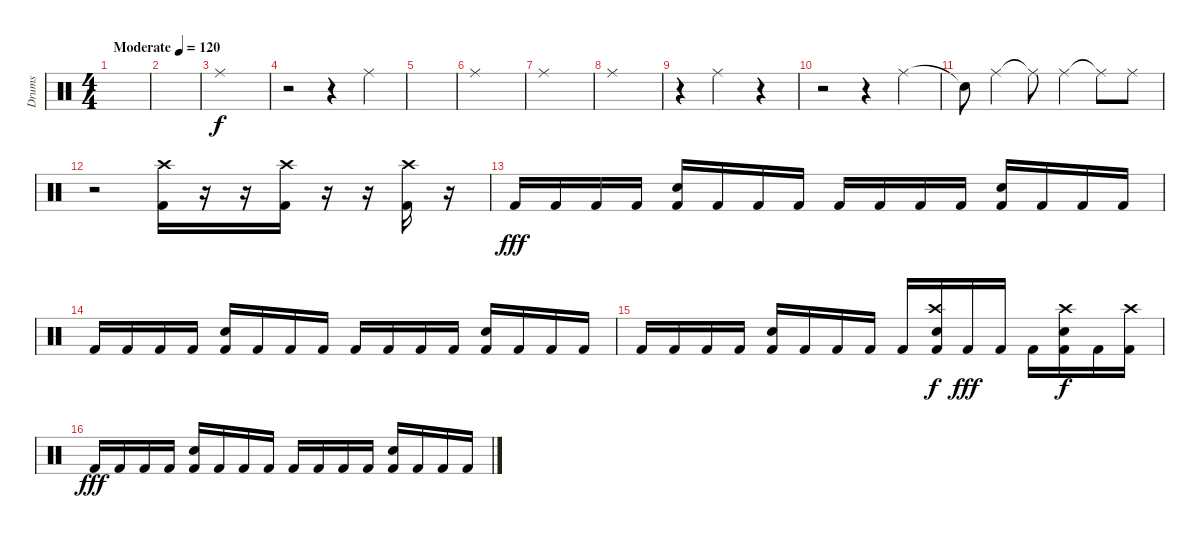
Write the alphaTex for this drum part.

\track ("Drums" "Drums") {instrument percussion}
\staff {score}
\articulation defaults
\ts (4 4)
\tempo (120 "Moderate")
\clef neutral
\ks c
|
|
"Ride (middle)".1 |
r.2 r.4 "Ride (middle)".4 |
|
"Ride (middle)".1 |
"Ride (middle)".1 |
"Ride (middle)".1 |
r.4 "Ride (middle)".2 r.4 |
r.2 r.4 "Ride (middle)".4 |
"Snare (hit)"{t}.8 "Ride (middle)".4 "Ride (middle)"{t}.8 "Ride (middle)".4 "Ride (middle)"{t}.8 "Ride (middle)".8 |
r.2 ("Crash high (hit)" "Kick (hit) 2").16 r.16 r.16 ("Crash high (hit)" "Kick (hit) 2").16 r.16 r.16 ("Crash high (hit)" "Kick (hit) 2").16 r.16 |
"Kick (hit) 2".16{dy fff} "Kick (hit) 2".16 "Kick (hit) 2".16 "Kick (hit) 2".16 ("Snare (hit) 2" "Kick (hit) 2").16 "Kick (hit) 2".16 "Kick (hit) 2".16 "Kick (hit) 2".16 "Kick (hit) 2".16 "Kick (hit) 2".16 "Kick (hit) 2".16 "Kick (hit) 2".16 ("Snare (hit) 2" "Kick (hit) 2").16 "Kick (hit) 2".16 "Kick (hit) 2".16 "Kick (hit) 2".16 |
"Kick (hit) 2".16 "Kick (hit) 2".16 "Kick (hit) 2".16 "Kick (hit) 2".16 ("Snare (hit) 2" "Kick (hit) 2").16 "Kick (hit) 2".16 "Kick (hit) 2".16 "Kick (hit) 2".16 "Kick (hit) 2".16 "Kick (hit) 2".16 "Kick (hit) 2".16 "Kick (hit) 2".16 ("Snare (hit) 2" "Kick (hit) 2").16 "Kick (hit) 2".16 "Kick (hit) 2".16 "Kick (hit) 2".16 |
"Kick (hit) 2".16 "Kick (hit) 2".16 "Kick (hit) 2".16 "Kick (hit) 2".16 ("Snare (hit) 2" "Kick (hit) 2").16 "Kick (hit) 2".16 "Kick (hit) 2".16 "Kick (hit) 2".16 "Kick (hit) 2".16 ("Crash high (hit)" "Snare (hit) 2" "Kick (hit) 2").16{dy f} "Kick (hit) 2".16{dy fff} "Kick (hit) 2".16 "Kick (hit) 2".16 ("Crash high (hit)" "Snare (hit) 2" "Kick (hit) 2").16{dy f} "Kick (hit) 2".16 ("Crash high (hit)" "Kick (hit) 2").16 |
"Kick (hit) 2".16{dy fff} "Kick (hit) 2".16 "Kick (hit) 2".16 "Kick (hit) 2".16 ("Snare (hit) 2" "Kick (hit) 2").16 "Kick (hit) 2".16 "Kick (hit) 2".16 "Kick (hit) 2".16 "Kick (hit) 2".16 "Kick (hit) 2".16 "Kick (hit) 2".16 "Kick (hit) 2".16 ("Snare (hit) 2" "Kick (hit) 2").16 "Kick (hit) 2".16 "Kick (hit) 2".16 "Kick (hit) 2".16
